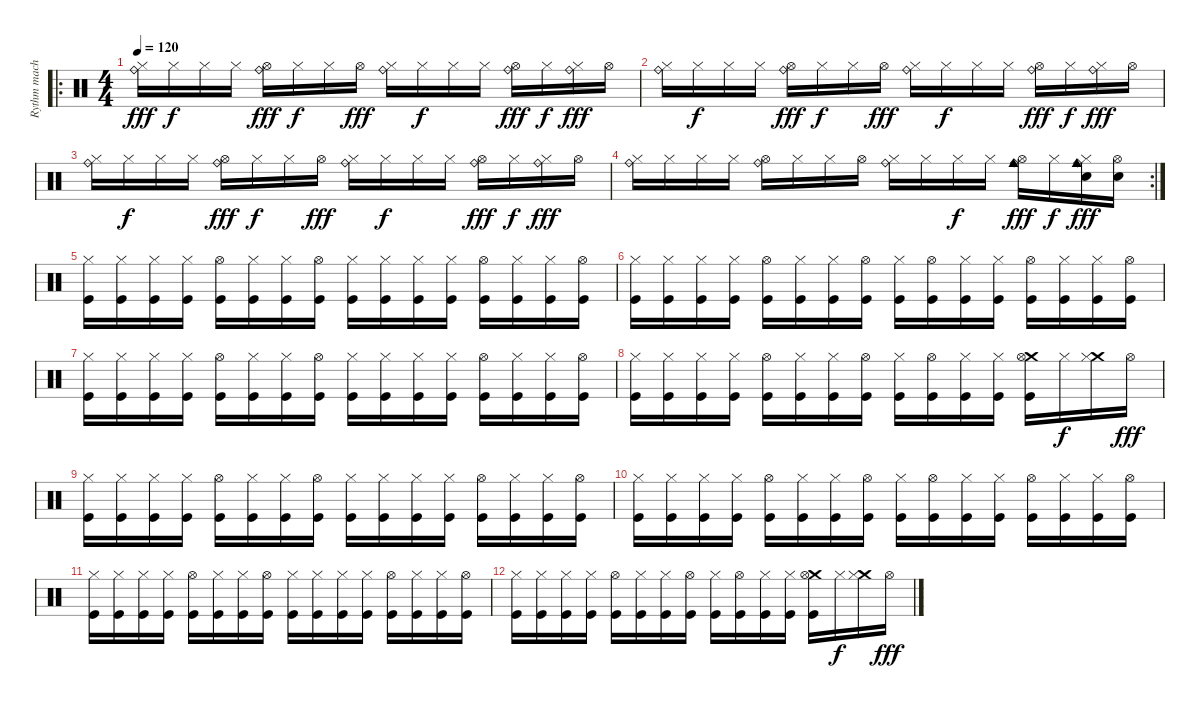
\track ("Rythm machine" "Rythm mach") {instrument percussion}
\staff {score}
\articulation defaults
\ro
\ts (4 4)
\tempo 120
\clef neutral
\ks c
("Ride (bell)" "Hi-Hat (closed)").16{dy fff} "Hi-Hat (closed)".16{dy f} "Hi-Hat (closed)".16 "Hi-Hat (closed)".16 ("Ride (bell)" "Hi-Hat (open)").16{dy fff} "Hi-Hat (closed)".16{dy f} "Hi-Hat (closed)".16 "Hi-Hat (open)".16{dy fff} ("Ride (bell)" "Hi-Hat (closed)").16 "Hi-Hat (closed)".16{dy f} "Hi-Hat (closed)".16 "Hi-Hat (closed)".16 ("Ride (bell)" "Hi-Hat (open)").16{dy fff} "Hi-Hat (closed)".16{dy f} ("Ride (bell)" "Hi-Hat (closed)").16{dy fff} "Hi-Hat (open)".16 |
("Ride (bell)" "Hi-Hat (closed)").16 "Hi-Hat (closed)".16{dy f} "Hi-Hat (closed)".16 "Hi-Hat (closed)".16 ("Ride (bell)" "Hi-Hat (open)").16{dy fff} "Hi-Hat (closed)".16{dy f} "Hi-Hat (closed)".16 "Hi-Hat (open)".16{dy fff} ("Ride (bell)" "Hi-Hat (closed)").16 "Hi-Hat (closed)".16{dy f} "Hi-Hat (closed)".16 "Hi-Hat (closed)".16 ("Ride (bell)" "Hi-Hat (open)").16{dy fff} "Hi-Hat (closed)".16{dy f} ("Ride (bell)" "Hi-Hat (closed)").16{dy fff} "Hi-Hat (open)".16 |
("Ride (bell)" "Hi-Hat (closed)").16 "Hi-Hat (closed)".16{dy f} "Hi-Hat (closed)".16 "Hi-Hat (closed)".16 ("Ride (bell)" "Hi-Hat (open)").16{dy fff} "Hi-Hat (closed)".16{dy f} "Hi-Hat (closed)".16 "Hi-Hat (open)".16{dy fff} ("Ride (bell)" "Hi-Hat (closed)").16 "Hi-Hat (closed)".16{dy f} "Hi-Hat (closed)".16 "Hi-Hat (closed)".16 ("Ride (bell)" "Hi-Hat (open)").16{dy fff} "Hi-Hat (closed)".16{dy f} ("Ride (bell)" "Hi-Hat (closed)").16{dy fff} "Hi-Hat (open)".16 |
\rc 2
("Ride (bell)" "Hi-Hat (closed)").16 "Hi-Hat (closed)".16 "Hi-Hat (closed)".16 "Hi-Hat (closed)".16 ("Ride (bell)" "Hi-Hat (open)").16 "Hi-Hat (closed)".16 "Hi-Hat (closed)".16 "Hi-Hat (open)".16 ("Ride (bell)" "Hi-Hat (closed)").16 "Hi-Hat (closed)".16 "Hi-Hat (closed)".16{dy f} "Hi-Hat (closed)".16 ("Cowbell medium (hit)" "Ride (bell)" "Hi-Hat (open)").16{dy fff} "Hi-Hat (closed)".16{dy f} ("Cowbell medium (hit)" "Hand Clap (hit)" "Ride (bell)" "Hi-Hat (closed)").16{dy fff} ("Hand Clap (hit)" "Hi-Hat (open)").16 |
("Hi-Hat (closed)" "Kick (hit)").16 ("Hi-Hat (closed)" "Kick (hit)").16 ("Hi-Hat (closed)" "Kick (hit)").16 ("Hi-Hat (closed)" "Kick (hit)").16 ("Hi-Hat (open)" "Kick (hit)").16 ("Hi-Hat (closed)" "Kick (hit)").16 ("Hi-Hat (closed)" "Kick (hit)").16 ("Hi-Hat (open)" "Kick (hit)").16 ("Hi-Hat (closed)" "Kick (hit)").16 ("Hi-Hat (closed)" "Kick (hit)").16 ("Hi-Hat (closed)" "Kick (hit)").16 ("Hi-Hat (closed)" "Kick (hit)").16 ("Hi-Hat (open)" "Kick (hit)").16 ("Hi-Hat (closed)" "Kick (hit)").16 ("Hi-Hat (closed)" "Kick (hit)").16 ("Hi-Hat (open)" "Kick (hit)").16 |
("Hi-Hat (closed)" "Kick (hit)").16 ("Hi-Hat (closed)" "Kick (hit)").16 ("Hi-Hat (closed)" "Kick (hit)").16 ("Hi-Hat (closed)" "Kick (hit)").16 ("Hi-Hat (open)" "Kick (hit)").16 ("Hi-Hat (closed)" "Kick (hit)").16 ("Hi-Hat (closed)" "Kick (hit)").16 ("Hi-Hat (open)" "Kick (hit)").16 ("Hi-Hat (closed)" "Kick (hit)").16 ("Hi-Hat (open)" "Kick (hit)").16 ("Hi-Hat (closed)" "Kick (hit)").16 ("Hi-Hat (closed)" "Kick (hit)").16 ("Hi-Hat (open)" "Kick (hit)").16 ("Hi-Hat (closed)" "Kick (hit)").16 ("Hi-Hat (closed)" "Kick (hit)").16 ("Hi-Hat (open)" "Kick (hit)").16 |
("Hi-Hat (closed)" "Kick (hit)").16 ("Hi-Hat (closed)" "Kick (hit)").16 ("Hi-Hat (closed)" "Kick (hit)").16 ("Hi-Hat (closed)" "Kick (hit)").16 ("Hi-Hat (open)" "Kick (hit)").16 ("Hi-Hat (closed)" "Kick (hit)").16 ("Hi-Hat (closed)" "Kick (hit)").16 ("Hi-Hat (open)" "Kick (hit)").16 ("Hi-Hat (closed)" "Kick (hit)").16 ("Hi-Hat (closed)" "Kick (hit)").16 ("Hi-Hat (closed)" "Kick (hit)").16 ("Hi-Hat (closed)" "Kick (hit)").16 ("Hi-Hat (open)" "Kick (hit)").16 ("Hi-Hat (closed)" "Kick (hit)").16 ("Hi-Hat (closed)" "Kick (hit)").16 ("Hi-Hat (open)" "Kick (hit)").16 |
("Hi-Hat (closed)" "Kick (hit)").16 ("Hi-Hat (closed)" "Kick (hit)").16 ("Hi-Hat (closed)" "Kick (hit)").16 ("Hi-Hat (closed)" "Kick (hit)").16 ("Hi-Hat (open)" "Kick (hit)").16 ("Hi-Hat (closed)" "Kick (hit)").16 ("Hi-Hat (closed)" "Kick (hit)").16 ("Hi-Hat (open)" "Kick (hit)").16 ("Hi-Hat (closed)" "Kick (hit)").16 ("Hi-Hat (open)" "Kick (hit)").16 ("Hi-Hat (closed)" "Kick (hit)").16 ("Hi-Hat (closed)" "Kick (hit)").16 ("Crash medium (hit)" "Hi-Hat (open)" "Kick (hit)").16 "Hi-Hat (closed)".16{dy f} ("Crash medium (hit)" "Hi-Hat (closed)").16 "Hi-Hat (open)".16{dy fff} |
("Hi-Hat (closed)" "Kick (hit)").16 ("Hi-Hat (closed)" "Kick (hit)").16 ("Hi-Hat (closed)" "Kick (hit)").16 ("Hi-Hat (closed)" "Kick (hit)").16 ("Hi-Hat (open)" "Kick (hit)").16 ("Hi-Hat (closed)" "Kick (hit)").16 ("Hi-Hat (closed)" "Kick (hit)").16 ("Hi-Hat (open)" "Kick (hit)").16 ("Hi-Hat (closed)" "Kick (hit)").16 ("Hi-Hat (closed)" "Kick (hit)").16 ("Hi-Hat (closed)" "Kick (hit)").16 ("Hi-Hat (closed)" "Kick (hit)").16 ("Hi-Hat (open)" "Kick (hit)").16 ("Hi-Hat (closed)" "Kick (hit)").16 ("Hi-Hat (closed)" "Kick (hit)").16 ("Hi-Hat (open)" "Kick (hit)").16 |
("Hi-Hat (closed)" "Kick (hit)").16 ("Hi-Hat (closed)" "Kick (hit)").16 ("Hi-Hat (closed)" "Kick (hit)").16 ("Hi-Hat (closed)" "Kick (hit)").16 ("Hi-Hat (open)" "Kick (hit)").16 ("Hi-Hat (closed)" "Kick (hit)").16 ("Hi-Hat (closed)" "Kick (hit)").16 ("Hi-Hat (open)" "Kick (hit)").16 ("Hi-Hat (closed)" "Kick (hit)").16 ("Hi-Hat (open)" "Kick (hit)").16 ("Hi-Hat (closed)" "Kick (hit)").16 ("Hi-Hat (closed)" "Kick (hit)").16 ("Hi-Hat (open)" "Kick (hit)").16 ("Hi-Hat (closed)" "Kick (hit)").16 ("Hi-Hat (closed)" "Kick (hit)").16 ("Hi-Hat (open)" "Kick (hit)").16 |
("Hi-Hat (closed)" "Kick (hit)").16 ("Hi-Hat (closed)" "Kick (hit)").16 ("Hi-Hat (closed)" "Kick (hit)").16 ("Hi-Hat (closed)" "Kick (hit)").16 ("Hi-Hat (open)" "Kick (hit)").16 ("Hi-Hat (closed)" "Kick (hit)").16 ("Hi-Hat (closed)" "Kick (hit)").16 ("Hi-Hat (open)" "Kick (hit)").16 ("Hi-Hat (closed)" "Kick (hit)").16 ("Hi-Hat (closed)" "Kick (hit)").16 ("Hi-Hat (closed)" "Kick (hit)").16 ("Hi-Hat (closed)" "Kick (hit)").16 ("Hi-Hat (open)" "Kick (hit)").16 ("Hi-Hat (closed)" "Kick (hit)").16 ("Hi-Hat (closed)" "Kick (hit)").16 ("Hi-Hat (open)" "Kick (hit)").16 |
("Hi-Hat (closed)" "Kick (hit)").16 ("Hi-Hat (closed)" "Kick (hit)").16 ("Hi-Hat (closed)" "Kick (hit)").16 ("Hi-Hat (closed)" "Kick (hit)").16 ("Hi-Hat (open)" "Kick (hit)").16 ("Hi-Hat (closed)" "Kick (hit)").16 ("Hi-Hat (closed)" "Kick (hit)").16 ("Hi-Hat (open)" "Kick (hit)").16 ("Hi-Hat (closed)" "Kick (hit)").16 ("Hi-Hat (open)" "Kick (hit)").16 ("Hi-Hat (closed)" "Kick (hit)").16 ("Hi-Hat (closed)" "Kick (hit)").16 ("Crash medium (hit)" "Hi-Hat (open)" "Kick (hit)").16 "Hi-Hat (closed)".16{dy f} ("Crash medium (hit)" "Hi-Hat (closed)").16 "Hi-Hat (open)".16{dy fff}
